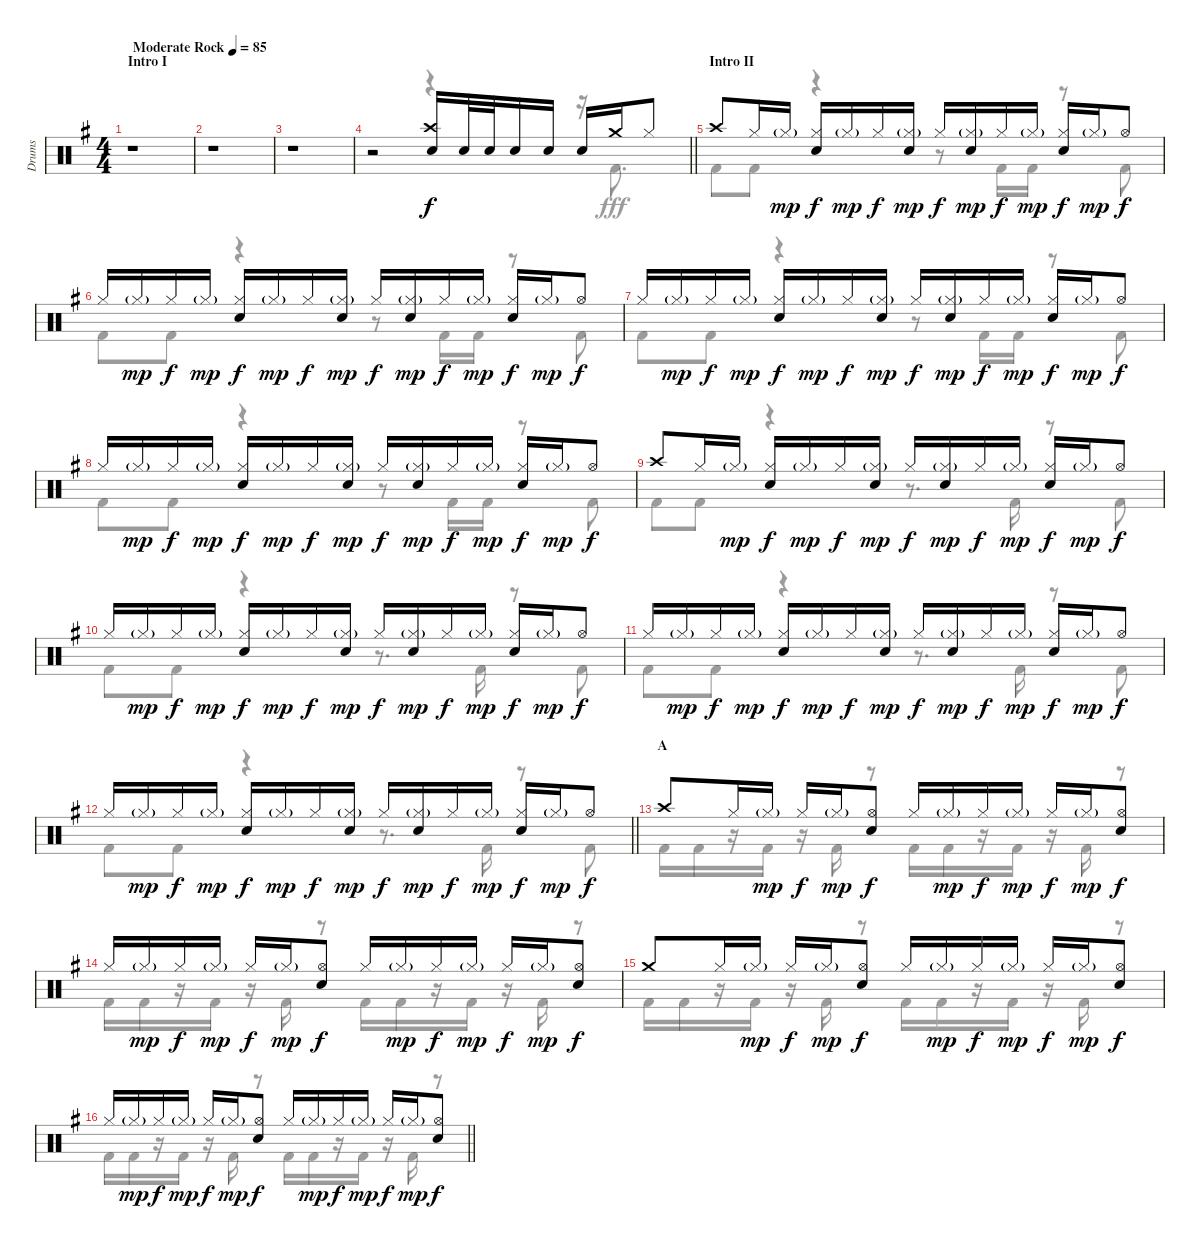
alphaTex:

\track ("Drums" "Drums") {instrument percussion}
\staff {score}
\articulation defaults
\voice
\ts (4 4)
\section ("" "Intro I")
\tempo (85 "Moderate Rock")
\clef neutral
\ks g
r.1{dy f} |
r.1 |
r.1 |
\barLineRight lightlight
r.2 ("Crash high (hit)" "Snare (hit) 2").16 "Snare (hit) 2".32 "Snare (hit) 2".32 "Snare (hit) 2".16 "Snare (hit) 2".16 "Snare (hit) 2".16 "Crash medium (hit)".16 "Hi-Hat (closed)".8 |
\section ("" "Intro II")
"Crash high (hit)".8 "Hi-Hat (closed)".16 "Hi-Hat (closed)"{g}.16{dy mp} ("Hi-Hat (closed)" "Snare (hit) 2").16{dy f} "Hi-Hat (closed)"{g}.16{dy mp} "Hi-Hat (closed)".16{dy f} ("Hi-Hat (closed)"{g} "Snare (hit) 2").16{dy mp} "Hi-Hat (closed)".16{dy f} ("Hi-Hat (closed)"{g} "Snare (hit) 2").16{dy mp} "Hi-Hat (closed)".16{dy f} "Hi-Hat (closed)"{g}.16{dy mp} ("Hi-Hat (closed)" "Snare (hit) 2").16{dy f} "Hi-Hat (closed)"{g}.16{dy mp} "Hi-Hat (open)".8{dy f} |
"Hi-Hat (closed)".16 "Hi-Hat (closed)"{g}.16{dy mp} "Hi-Hat (closed)".16{dy f} "Hi-Hat (closed)"{g}.16{dy mp} ("Hi-Hat (closed)" "Snare (hit) 2").16{dy f} "Hi-Hat (closed)"{g}.16{dy mp} "Hi-Hat (closed)".16{dy f} ("Hi-Hat (closed)"{g} "Snare (hit) 2").16{dy mp} "Hi-Hat (closed)".16{dy f} ("Hi-Hat (closed)"{g} "Snare (hit) 2").16{dy mp} "Hi-Hat (closed)".16{dy f} "Hi-Hat (closed)"{g}.16{dy mp} ("Hi-Hat (closed)" "Snare (hit) 2").16{dy f} "Hi-Hat (closed)"{g}.16{dy mp} "Hi-Hat (open)".8{dy f} |
"Hi-Hat (closed)".16 "Hi-Hat (closed)"{g}.16{dy mp} "Hi-Hat (closed)".16{dy f} "Hi-Hat (closed)"{g}.16{dy mp} ("Hi-Hat (closed)" "Snare (hit) 2").16{dy f} "Hi-Hat (closed)"{g}.16{dy mp} "Hi-Hat (closed)".16{dy f} ("Hi-Hat (closed)"{g} "Snare (hit) 2").16{dy mp} "Hi-Hat (closed)".16{dy f} ("Hi-Hat (closed)"{g} "Snare (hit) 2").16{dy mp} "Hi-Hat (closed)".16{dy f} "Hi-Hat (closed)"{g}.16{dy mp} ("Hi-Hat (closed)" "Snare (hit) 2").16{dy f} "Hi-Hat (closed)"{g}.16{dy mp} "Hi-Hat (open)".8{dy f} |
"Hi-Hat (closed)".16 "Hi-Hat (closed)"{g}.16{dy mp} "Hi-Hat (closed)".16{dy f} "Hi-Hat (closed)"{g}.16{dy mp} ("Hi-Hat (closed)" "Snare (hit) 2").16{dy f} "Hi-Hat (closed)"{g}.16{dy mp} "Hi-Hat (closed)".16{dy f} ("Hi-Hat (closed)"{g} "Snare (hit) 2").16{dy mp} "Hi-Hat (closed)".16{dy f} ("Hi-Hat (closed)"{g} "Snare (hit) 2").16{dy mp} "Hi-Hat (closed)".16{dy f} "Hi-Hat (closed)"{g}.16{dy mp} ("Hi-Hat (closed)" "Snare (hit) 2").16{dy f} "Hi-Hat (closed)"{g}.16{dy mp} "Hi-Hat (open)".8{dy f} |
"Crash high (hit)".8 "Hi-Hat (closed)".16 "Hi-Hat (closed)"{g}.16{dy mp} ("Hi-Hat (closed)" "Snare (hit) 2").16{dy f} "Hi-Hat (closed)"{g}.16{dy mp} "Hi-Hat (closed)".16{dy f} ("Hi-Hat (closed)"{g} "Snare (hit) 2").16{dy mp} "Hi-Hat (closed)".16{dy f} ("Hi-Hat (closed)"{g} "Snare (hit) 2").16{dy mp} "Hi-Hat (closed)".16{dy f} "Hi-Hat (closed)"{g}.16{dy mp} ("Hi-Hat (closed)" "Snare (hit) 2").16{dy f} "Hi-Hat (closed)"{g}.16{dy mp} "Hi-Hat (open)".8{dy f} |
"Hi-Hat (closed)".16 "Hi-Hat (closed)"{g}.16{dy mp} "Hi-Hat (closed)".16{dy f} "Hi-Hat (closed)"{g}.16{dy mp} ("Hi-Hat (closed)" "Snare (hit) 2").16{dy f} "Hi-Hat (closed)"{g}.16{dy mp} "Hi-Hat (closed)".16{dy f} ("Hi-Hat (closed)"{g} "Snare (hit) 2").16{dy mp} "Hi-Hat (closed)".16{dy f} ("Hi-Hat (closed)"{g} "Snare (hit) 2").16{dy mp} "Hi-Hat (closed)".16{dy f} "Hi-Hat (closed)"{g}.16{dy mp} ("Hi-Hat (closed)" "Snare (hit) 2").16{dy f} "Hi-Hat (closed)"{g}.16{dy mp} "Hi-Hat (open)".8{dy f} |
"Hi-Hat (closed)".16 "Hi-Hat (closed)"{g}.16{dy mp} "Hi-Hat (closed)".16{dy f} "Hi-Hat (closed)"{g}.16{dy mp} ("Hi-Hat (closed)" "Snare (hit) 2").16{dy f} "Hi-Hat (closed)"{g}.16{dy mp} "Hi-Hat (closed)".16{dy f} ("Hi-Hat (closed)"{g} "Snare (hit) 2").16{dy mp} "Hi-Hat (closed)".16{dy f} ("Hi-Hat (closed)"{g} "Snare (hit) 2").16{dy mp} "Hi-Hat (closed)".16{dy f} "Hi-Hat (closed)"{g}.16{dy mp} ("Hi-Hat (closed)" "Snare (hit) 2").16{dy f} "Hi-Hat (closed)"{g}.16{dy mp} "Hi-Hat (open)".8{dy f} |
\barLineRight lightlight "Hi-Hat (closed)".16 "Hi-Hat (closed)"{g}.16{dy mp} "Hi-Hat (closed)".16{dy f} "Hi-Hat (closed)"{g}.16{dy mp}
("Hi-Hat (closed)" "Snare (hit) 2").16{dy f} "Hi-Hat (closed)"{g}.16{dy mp} "Hi-Hat (closed)".16{dy f} ("Hi-Hat (closed)"{g} "Snare (hit) 2").16{dy mp} "Hi-Hat (closed)".16{dy f} ("Hi-Hat (closed)"{g} "Snare (hit) 2").16{dy mp} "Hi-Hat (closed)".16{dy f} "Hi-Hat (closed)"{g}.16{dy mp} ("Hi-Hat (closed)" "Snare (hit) 2").16{dy f} "Hi-Hat (closed)"{g}.16{dy mp} "Hi-Hat (open)".8{dy f} |
\section ("" "A")
"Crash high (hit)".8 "Hi-Hat (closed)".16 "Hi-Hat (closed)"{g}.16{dy mp} "Hi-Hat (closed)".16{dy f} "Hi-Hat (closed)"{g}.16{dy mp} ("Hi-Hat (open)" "Snare (hit) 2").8{dy f} "Hi-Hat (closed)".16 "Hi-Hat (closed)"{g}.16{dy mp} "Hi-Hat (closed)".16{dy f} "Hi-Hat (closed)"{g}.16{dy mp} "Hi-Hat (closed)".16{dy f} "Hi-Hat (closed)"{g}.16{dy mp} ("Hi-Hat (open)" "Snare (hit) 2").8{dy f} |
"Hi-Hat (closed)".16 "Hi-Hat (closed)"{g}.16{dy mp} "Hi-Hat (closed)".16{dy f} "Hi-Hat (closed)"{g}.16{dy mp} "Hi-Hat (closed)".16{dy f} "Hi-Hat (closed)"{g}.16{dy mp} ("Hi-Hat (open)" "Snare (hit) 2").8{dy f} "Hi-Hat (closed)".16 "Hi-Hat (closed)"{g}.16{dy mp} "Hi-Hat (closed)".16{dy f} "Hi-Hat (closed)"{g}.16{dy mp} "Hi-Hat (closed)".16{dy f} "Hi-Hat (closed)"{g}.16{dy mp} ("Hi-Hat (open)" "Snare (hit) 2").8{dy f} |
"Crash medium (hit)".8 "Hi-Hat (closed)".16 "Hi-Hat (closed)"{g}.16{dy mp} "Hi-Hat (closed)".16{dy f} "Hi-Hat (closed)"{g}.16{dy mp} ("Hi-Hat (open)" "Snare (hit) 2").8{dy f} "Hi-Hat (closed)".16 "Hi-Hat (closed)"{g}.16{dy mp} "Hi-Hat (closed)".16{dy f} "Hi-Hat (closed)"{g}.16{dy mp} "Hi-Hat (closed)".16{dy f} "Hi-Hat (closed)"{g}.16{dy mp} ("Hi-Hat (open)" "Snare (hit) 2").8{dy f} |
\barLineRight lightlight "Hi-Hat (closed)".16 "Hi-Hat (closed)"{g}.16{dy mp} "Hi-Hat (closed)".16{dy f} "Hi-Hat (closed)"{g}.16{dy mp} "Hi-Hat (closed)".16{dy f} "Hi-Hat (closed)"{g}.16{dy mp}
("Hi-Hat (open)" "Snare (hit) 2").8{dy f} "Hi-Hat (closed)".16 "Hi-Hat (closed)"{g}.16{dy mp} "Hi-Hat (closed)".16{dy f} "Hi-Hat (closed)"{g}.16{dy mp} "Hi-Hat (closed)".16{dy f} "Hi-Hat (closed)"{g}.16{dy mp} ("Hi-Hat (open)" "Snare (hit) 2").8{dy f}
\voice
\clef neutral
\ottava regular
\simile none
\ks g
r.1{dy fff} |
r.1 |
r.1 |
\barLineRight lightlight
r.2 r.4 r.16 "Kick (hit) 2".8{d} |
"Kick (hit) 2".8 "Kick (hit) 2".8 r.4 r.8 "Kick (hit) 2".16 "Kick (hit) 2".16 r.8 "Kick (hit) 2".8 |
"Kick (hit) 2".8 "Kick (hit) 2".8 r.4 r.8 "Kick (hit) 2".16 "Kick (hit) 2".16 r.8 "Kick (hit) 2".8 |
"Kick (hit) 2".8 "Kick (hit) 2".8 r.4 r.8 "Kick (hit) 2".16 "Kick (hit) 2".16 r.8 "Kick (hit) 2".8 |
"Kick (hit) 2".8 "Kick (hit) 2".8 r.4 r.8 "Kick (hit) 2".16 "Kick (hit) 2".16 r.8 "Kick (hit) 2".8 |
"Kick (hit) 2".8 "Kick (hit) 2".8 r.4 r.8{d} "Kick (hit) 2".16 r.8 "Kick (hit) 2".8 |
"Kick (hit) 2".8 "Kick (hit) 2".8 r.4 r.8{d} "Kick (hit) 2".16 r.8 "Kick (hit) 2".8 |
"Kick (hit) 2".8 "Kick (hit) 2".8 r.4 r.8{d} "Kick (hit) 2".16 r.8 "Kick (hit) 2".8 |
\barLineRight lightlight "Kick (hit) 2".8 "Kick (hit) 2".8
r.4 r.8{d} "Kick (hit) 2".16 r.8 "Kick (hit) 2".8 |
"Kick (hit) 2".16 "Kick (hit) 2".16 r.16 "Kick (hit) 2".16 r.16 "Kick (hit) 2".16 r.8 "Kick (hit) 2".16 "Kick (hit) 2".16 r.16 "Kick (hit) 2".16 r.16 "Kick (hit) 2".16 r.8 |
"Kick (hit) 2".16 "Kick (hit) 2".16 r.16 "Kick (hit) 2".16 r.16 "Kick (hit) 2".16 r.8 "Kick (hit) 2".16 "Kick (hit) 2".16 r.16 "Kick (hit) 2".16 r.16 "Kick (hit) 2".16 r.8 |
"Kick (hit) 2".16 "Kick (hit) 2".16 r.16 "Kick (hit) 2".16 r.16 "Kick (hit) 2".16 r.8 "Kick (hit) 2".16 "Kick (hit) 2".16 r.16 "Kick (hit) 2".16 r.16 "Kick (hit) 2".16 r.8 |
\barLineRight lightlight "Kick (hit) 2".16 "Kick (hit) 2".16
r.16 "Kick (hit) 2".16 r.16 "Kick (hit) 2".16 r.8 "Kick (hit) 2".16 "Kick (hit) 2".16 r.16 "Kick (hit) 2".16 r.16 "Kick (hit) 2".16 r.8
